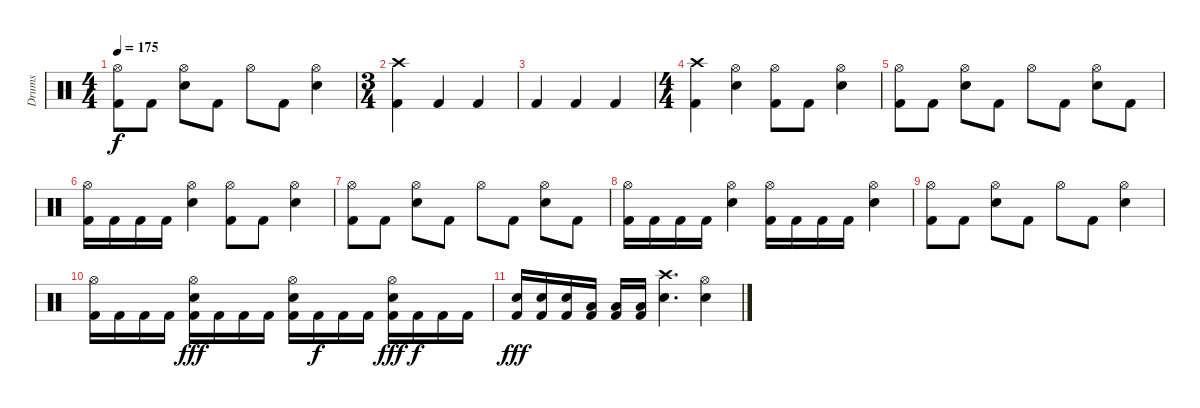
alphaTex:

\track ("Drums" "Drums") {instrument percussion}
\staff {score}
\articulation defaults
\ts (4 4)
\tempo 175
\clef neutral
\ks c
("Hi-Hat (open)" "Kick (hit) 2").8{dy f} "Kick (hit) 2".8 ("Hi-Hat (open)" "Electric Snare (hit)").8 "Kick (hit) 2".8 "Hi-Hat (open)".8 "Kick (hit) 2".8 ("Hi-Hat (open)" "Electric Snare (hit)").4 |
\ts (3 4)
("Crash high (hit)" "Kick (hit) 2").4 "Kick (hit) 2".4 "Kick (hit) 2".4 |
"Kick (hit) 2".4 "Kick (hit) 2".4 "Kick (hit) 2".4 |
\ts (4 4)
("Crash high (hit)" "Kick (hit) 2").4 ("Hi-Hat (open)" "Electric Snare (hit)").4 ("Hi-Hat (open)" "Kick (hit) 2").8 "Kick (hit) 2".8 ("Hi-Hat (open)" "Electric Snare (hit)").4 |
("Hi-Hat (open)" "Kick (hit) 2").8 "Kick (hit) 2".8 ("Hi-Hat (open)" "Electric Snare (hit)").8 "Kick (hit) 2".8 "Hi-Hat (open)".8 "Kick (hit) 2".8 ("Hi-Hat (open)" "Electric Snare (hit)").8 "Kick (hit) 2".8 |
("Hi-Hat (open)" "Kick (hit) 2").16 "Kick (hit) 2".16 "Kick (hit) 2".16 "Kick (hit) 2".16 ("Hi-Hat (open)" "Electric Snare (hit)").4 ("Hi-Hat (open)" "Kick (hit) 2").8 "Kick (hit) 2".8 ("Hi-Hat (open)" "Electric Snare (hit)").4 |
("Hi-Hat (open)" "Kick (hit) 2").8 "Kick (hit) 2".8 ("Hi-Hat (open)" "Electric Snare (hit)").8 "Kick (hit) 2".8 "Hi-Hat (open)".8 "Kick (hit) 2".8 ("Hi-Hat (open)" "Electric Snare (hit)").8 "Kick (hit) 2".8 |
("Hi-Hat (open)" "Kick (hit) 2").16 "Kick (hit) 2".16 "Kick (hit) 2".16 "Kick (hit) 2".16 ("Hi-Hat (open)" "Electric Snare (hit)").4 ("Hi-Hat (open)" "Kick (hit) 2").16 "Kick (hit) 2".16 "Kick (hit) 2".16 "Kick (hit) 2".16 ("Hi-Hat (open)" "Electric Snare (hit)").4 |
("Hi-Hat (open)" "Kick (hit) 2").8 "Kick (hit) 2".8 ("Hi-Hat (open)" "Electric Snare (hit)").8 "Kick (hit) 2".8 "Hi-Hat (open)".8 "Kick (hit) 2".8 ("Hi-Hat (open)" "Electric Snare (hit)").4 |
("Hi-Hat (open)" "Kick (hit) 2").16 "Kick (hit) 2".16 "Kick (hit) 2".16 "Kick (hit) 2".16 ("Hi-Hat (open)" "Electric Snare (hit)" "Kick (hit) 2").16{dy fff} "Kick (hit) 2".16 "Kick (hit) 2".16 "Kick (hit) 2".16 ("Hi-Hat (open)" "Electric Snare (hit)" "Kick (hit) 2").16 "Kick (hit) 2".16{dy f} "Kick (hit) 2".16 "Kick (hit) 2".16 ("Hi-Hat (open)" "Electric Snare (hit)" "Kick (hit) 2").16{dy fff} "Kick (hit) 2".16{dy f} "Kick (hit) 2".16 "Kick (hit) 2".16 |
("Electric Snare (hit)" "Kick (hit) 2").16{dy fff} ("Electric Snare (hit)" "Kick (hit) 2").16 ("Electric Snare (hit)" "Kick (hit) 2").16 ("Low Floor Tom (hit)" "Kick (hit) 2").16 ("Low Floor Tom (hit)" "Kick (hit) 2").16 ("Low Floor Tom (hit)" "Kick (hit) 2").16 ("Crash high (hit)" "Electric Snare (hit)").4{d} ("Hi-Hat (open)" "Electric Snare (hit)").4
